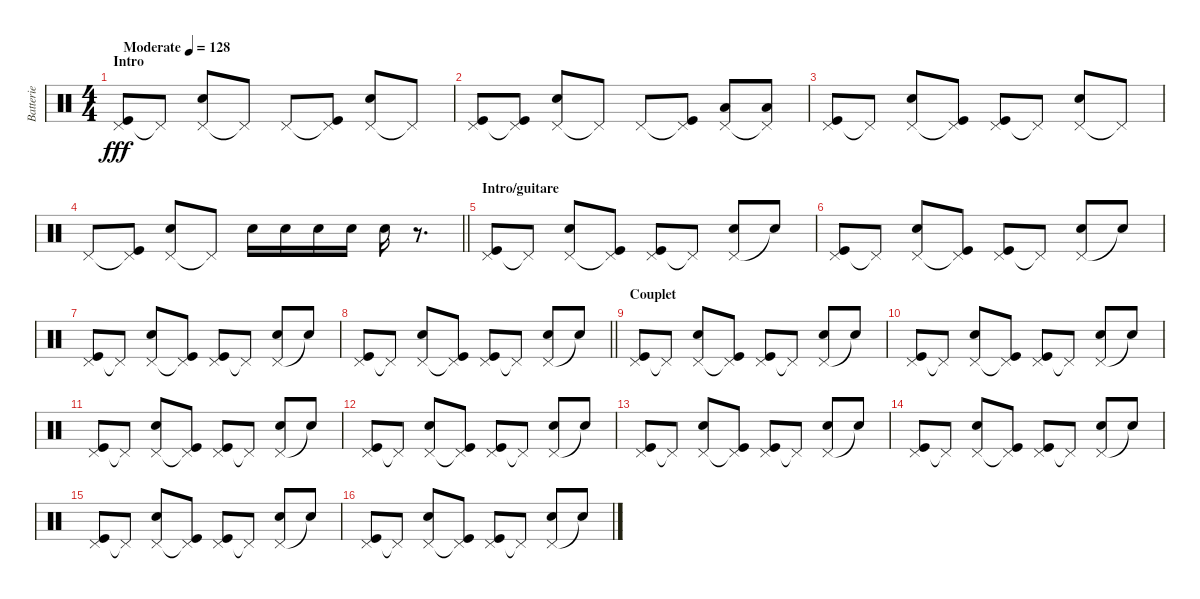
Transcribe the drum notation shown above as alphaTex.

\track ("Batterie" "Batterie") {instrument percussion}
\staff {score}
\articulation defaults
\ts (4 4)
\section ("" "Intro")
\tempo (128 "Moderate")
\clef neutral
\ks c
("Pedal Hi-Hat (hit)" "Kick (hit)").8{dy fff} "Pedal Hi-Hat (hit)"{t}.8 ("Pedal Hi-Hat (hit)" "Electric Snare (hit)").8 "Pedal Hi-Hat (hit)"{t}.8 "Pedal Hi-Hat (hit)".8 ("Pedal Hi-Hat (hit)"{t} "Kick (hit)").8 ("Pedal Hi-Hat (hit)" "Electric Snare (hit)").8 "Pedal Hi-Hat (hit)"{t}.8 |
("Pedal Hi-Hat (hit)" "Kick (hit)").8 ("Pedal Hi-Hat (hit)"{t} "Kick (hit)").8 ("Pedal Hi-Hat (hit)" "Electric Snare (hit)").8 "Pedal Hi-Hat (hit)"{t}.8 "Pedal Hi-Hat (hit)".8 ("Pedal Hi-Hat (hit)"{t} "Kick (hit)").8 ("Pedal Hi-Hat (hit)" "Low Tom (hit)").8 ("Pedal Hi-Hat (hit)"{t} "Low Tom (hit)").8 |
("Pedal Hi-Hat (hit)" "Kick (hit)").8 "Pedal Hi-Hat (hit)"{t}.8 ("Pedal Hi-Hat (hit)" "Electric Snare (hit)").8 ("Pedal Hi-Hat (hit)"{t} "Kick (hit)").8 ("Pedal Hi-Hat (hit)" "Kick (hit)").8 "Pedal Hi-Hat (hit)"{t}.8 ("Pedal Hi-Hat (hit)" "Electric Snare (hit)").8 "Pedal Hi-Hat (hit)"{t}.8 |
\barLineRight lightlight "Pedal Hi-Hat (hit)".8
("Pedal Hi-Hat (hit)"{t} "Kick (hit)").8 ("Pedal Hi-Hat (hit)" "Electric Snare (hit)").8 "Pedal Hi-Hat (hit)"{t}.8 "Electric Snare (hit)".16 "Electric Snare (hit)".16 "Electric Snare (hit)".16 "Electric Snare (hit)".16 "Electric Snare (hit)".16 r.8{d} |
\section ("" "Intro/guitare")
("Pedal Hi-Hat (hit)" "Kick (hit)").8 "Pedal Hi-Hat (hit)"{t}.8 ("Pedal Hi-Hat (hit)" "Electric Snare (hit)").8 ("Pedal Hi-Hat (hit)"{t} "Kick (hit)").8 ("Pedal Hi-Hat (hit)" "Kick (hit)").8 "Pedal Hi-Hat (hit)"{t}.8 ("Pedal Hi-Hat (hit)" "Electric Snare (hit)").8 "Snare (hit)"{t}.8 |
("Pedal Hi-Hat (hit)" "Kick (hit)").8 "Pedal Hi-Hat (hit)"{t}.8 ("Pedal Hi-Hat (hit)" "Electric Snare (hit)").8 ("Pedal Hi-Hat (hit)"{t} "Kick (hit)").8 ("Pedal Hi-Hat (hit)" "Kick (hit)").8 "Pedal Hi-Hat (hit)"{t}.8 ("Pedal Hi-Hat (hit)" "Electric Snare (hit)").8 "Snare (hit)"{t}.8 |
("Pedal Hi-Hat (hit)" "Kick (hit)").8 "Pedal Hi-Hat (hit)"{t}.8 ("Pedal Hi-Hat (hit)" "Electric Snare (hit)").8 ("Pedal Hi-Hat (hit)"{t} "Kick (hit)").8 ("Pedal Hi-Hat (hit)" "Kick (hit)").8 "Pedal Hi-Hat (hit)"{t}.8 ("Pedal Hi-Hat (hit)" "Electric Snare (hit)").8 "Snare (hit)"{t}.8 |
\barLineRight lightlight
("Pedal Hi-Hat (hit)" "Kick (hit)").8 "Pedal Hi-Hat (hit)"{t}.8 ("Pedal Hi-Hat (hit)" "Electric Snare (hit)").8 ("Pedal Hi-Hat (hit)"{t} "Kick (hit)").8 ("Pedal Hi-Hat (hit)" "Kick (hit)").8 "Pedal Hi-Hat (hit)"{t}.8 ("Pedal Hi-Hat (hit)" "Electric Snare (hit)").8 "Snare (hit)"{t}.8 |
\section ("" "Couplet")
("Pedal Hi-Hat (hit)" "Kick (hit)").8 "Pedal Hi-Hat (hit)"{t}.8 ("Pedal Hi-Hat (hit)" "Electric Snare (hit)").8 ("Pedal Hi-Hat (hit)"{t} "Kick (hit)").8 ("Pedal Hi-Hat (hit)" "Kick (hit)").8 "Pedal Hi-Hat (hit)"{t}.8 ("Pedal Hi-Hat (hit)" "Electric Snare (hit)").8 "Snare (hit)"{t}.8 |
("Pedal Hi-Hat (hit)" "Kick (hit)").8 "Pedal Hi-Hat (hit)"{t}.8 ("Pedal Hi-Hat (hit)" "Electric Snare (hit)").8 ("Pedal Hi-Hat (hit)"{t} "Kick (hit)").8 ("Pedal Hi-Hat (hit)" "Kick (hit)").8 "Pedal Hi-Hat (hit)"{t}.8 ("Pedal Hi-Hat (hit)" "Electric Snare (hit)").8 "Snare (hit)"{t}.8 |
("Pedal Hi-Hat (hit)" "Kick (hit)").8 "Pedal Hi-Hat (hit)"{t}.8 ("Pedal Hi-Hat (hit)" "Electric Snare (hit)").8 ("Pedal Hi-Hat (hit)"{t} "Kick (hit)").8 ("Pedal Hi-Hat (hit)" "Kick (hit)").8 "Pedal Hi-Hat (hit)"{t}.8 ("Pedal Hi-Hat (hit)" "Electric Snare (hit)").8 "Snare (hit)"{t}.8 |
("Pedal Hi-Hat (hit)" "Kick (hit)").8 "Pedal Hi-Hat (hit)"{t}.8 ("Pedal Hi-Hat (hit)" "Electric Snare (hit)").8 ("Pedal Hi-Hat (hit)"{t} "Kick (hit)").8 ("Pedal Hi-Hat (hit)" "Kick (hit)").8 "Pedal Hi-Hat (hit)"{t}.8 ("Pedal Hi-Hat (hit)" "Electric Snare (hit)").8 "Snare (hit)"{t}.8 |
("Pedal Hi-Hat (hit)" "Kick (hit)").8 "Pedal Hi-Hat (hit)"{t}.8 ("Pedal Hi-Hat (hit)" "Electric Snare (hit)").8 ("Pedal Hi-Hat (hit)"{t} "Kick (hit)").8 ("Pedal Hi-Hat (hit)" "Kick (hit)").8 "Pedal Hi-Hat (hit)"{t}.8 ("Pedal Hi-Hat (hit)" "Electric Snare (hit)").8 "Snare (hit)"{t}.8 |
("Pedal Hi-Hat (hit)" "Kick (hit)").8 "Pedal Hi-Hat (hit)"{t}.8 ("Pedal Hi-Hat (hit)" "Electric Snare (hit)").8 ("Pedal Hi-Hat (hit)"{t} "Kick (hit)").8 ("Pedal Hi-Hat (hit)" "Kick (hit)").8 "Pedal Hi-Hat (hit)"{t}.8 ("Pedal Hi-Hat (hit)" "Electric Snare (hit)").8 "Snare (hit)"{t}.8 |
("Pedal Hi-Hat (hit)" "Kick (hit)").8 "Pedal Hi-Hat (hit)"{t}.8 ("Pedal Hi-Hat (hit)" "Electric Snare (hit)").8 ("Pedal Hi-Hat (hit)"{t} "Kick (hit)").8 ("Pedal Hi-Hat (hit)" "Kick (hit)").8 "Pedal Hi-Hat (hit)"{t}.8 ("Pedal Hi-Hat (hit)" "Electric Snare (hit)").8 "Snare (hit)"{t}.8 |
("Pedal Hi-Hat (hit)" "Kick (hit)").8 "Pedal Hi-Hat (hit)"{t}.8 ("Pedal Hi-Hat (hit)" "Electric Snare (hit)").8 ("Pedal Hi-Hat (hit)"{t} "Kick (hit)").8 ("Pedal Hi-Hat (hit)" "Kick (hit)").8 "Pedal Hi-Hat (hit)"{t}.8 ("Pedal Hi-Hat (hit)" "Electric Snare (hit)").8 "Snare (hit)"{t}.8
